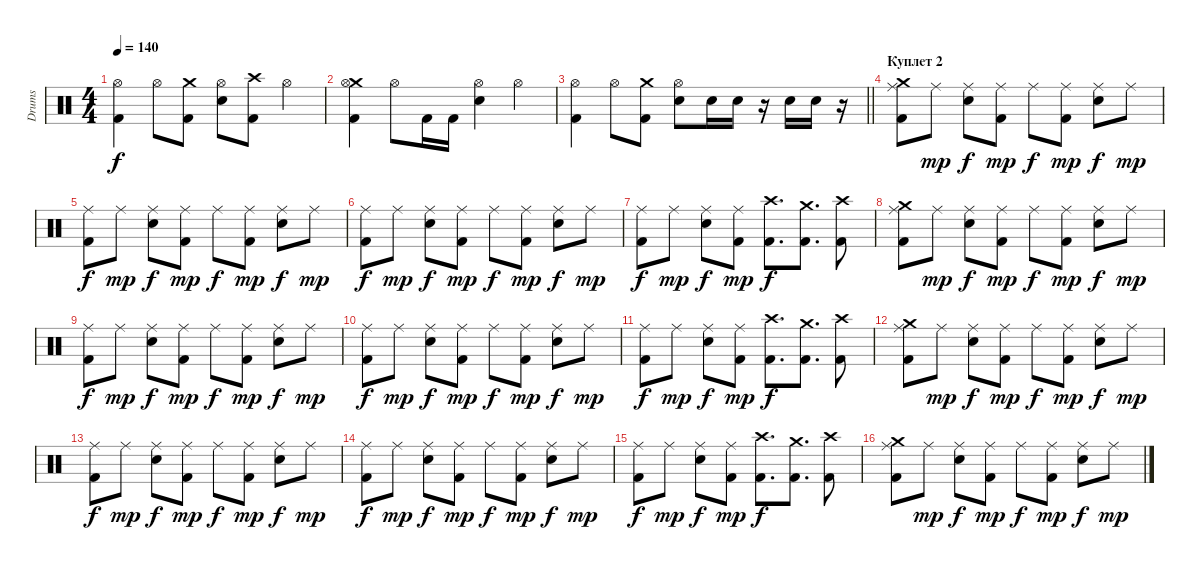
\track ("Drums" "Drums") {instrument percussion}
\staff {score}
\articulation defaults
\ts (4 4)
\tempo 140
\clef neutral
\ks c
("Kick (hit) 2" "Hi-Hat (open)").4{dy f} "Hi-Hat (open)".8 ("Crash medium (hit)" "Kick (hit) 2").8 ("Electric Snare (hit)" "Hi-Hat (open)").8 ("Crash high (hit)" "Kick (hit) 2").8 "Hi-Hat (open)".4 |
("Crash medium (hit)" "Kick (hit) 2" "Hi-Hat (open)").4 "Hi-Hat (open)".8 "Kick (hit) 2".16 "Kick (hit) 2".16 ("Electric Snare (hit)" "Hi-Hat (open)").4 "Hi-Hat (open)".4 |
\barLineRight lightlight
("Kick (hit) 2" "Hi-Hat (open)").4 "Hi-Hat (open)".8 ("Crash medium (hit)" "Kick (hit) 2").8 ("Electric Snare (hit)" "Hi-Hat (open)").8 "Electric Snare (hit)".16 "Electric Snare (hit)".16 r.16 "Electric Snare (hit)".16 "Electric Snare (hit)".16 r.16 |
\section ("" "Куплет 2")
("Crash medium (hit)" "Kick (hit) 2" "Ride (middle)").8 "Ride (middle)".8{dy mp} ("Electric Snare (hit)" "Ride (middle)").8{dy f} ("Kick (hit) 2" "Ride (middle)").8{dy mp} "Ride (middle)".8{dy f} ("Kick (hit) 2" "Ride (middle)").8{dy mp} ("Electric Snare (hit)" "Ride (middle)").8{dy f} "Ride (middle)".8{dy mp} |
("Kick (hit) 2" "Ride (middle)").8{dy f} "Ride (middle)".8{dy mp} ("Electric Snare (hit)" "Ride (middle)").8{dy f} ("Kick (hit) 2" "Ride (middle)").8{dy mp} "Ride (middle)".8{dy f} ("Kick (hit) 2" "Ride (middle)").8{dy mp} ("Electric Snare (hit)" "Ride (middle)").8{dy f} "Ride (middle)".8{dy mp} |
("Kick (hit) 2" "Ride (middle)").8{dy f} "Ride (middle)".8{dy mp} ("Electric Snare (hit)" "Ride (middle)").8{dy f} ("Kick (hit) 2" "Ride (middle)").8{dy mp} "Ride (middle)".8{dy f} ("Kick (hit) 2" "Ride (middle)").8{dy mp} ("Electric Snare (hit)" "Ride (middle)").8{dy f} "Ride (middle)".8{dy mp} |
("Kick (hit) 2" "Ride (middle)").8{dy f} "Ride (middle)".8{dy mp} ("Electric Snare (hit)" "Ride (middle)").8{dy f} ("Kick (hit) 2" "Ride (middle)").8{dy mp} ("Crash high (hit)" "Kick (hit) 2").8{d dy f} ("Crash medium (hit)" "Kick (hit) 2").8{d} ("Crash high (hit)" "Kick (hit) 2").8 |
("Crash medium (hit)" "Kick (hit) 2" "Ride (middle)").8 "Ride (middle)".8{dy mp} ("Electric Snare (hit)" "Ride (middle)").8{dy f} ("Kick (hit) 2" "Ride (middle)").8{dy mp} "Ride (middle)".8{dy f} ("Kick (hit) 2" "Ride (middle)").8{dy mp} ("Electric Snare (hit)" "Ride (middle)").8{dy f} "Ride (middle)".8{dy mp} |
("Kick (hit) 2" "Ride (middle)").8{dy f} "Ride (middle)".8{dy mp} ("Electric Snare (hit)" "Ride (middle)").8{dy f} ("Kick (hit) 2" "Ride (middle)").8{dy mp} "Ride (middle)".8{dy f} ("Kick (hit) 2" "Ride (middle)").8{dy mp} ("Electric Snare (hit)" "Ride (middle)").8{dy f} "Ride (middle)".8{dy mp} |
("Kick (hit) 2" "Ride (middle)").8{dy f} "Ride (middle)".8{dy mp} ("Electric Snare (hit)" "Ride (middle)").8{dy f} ("Kick (hit) 2" "Ride (middle)").8{dy mp} "Ride (middle)".8{dy f} ("Kick (hit) 2" "Ride (middle)").8{dy mp} ("Electric Snare (hit)" "Ride (middle)").8{dy f} "Ride (middle)".8{dy mp} |
("Kick (hit) 2" "Ride (middle)").8{dy f} "Ride (middle)".8{dy mp} ("Electric Snare (hit)" "Ride (middle)").8{dy f} ("Kick (hit) 2" "Ride (middle)").8{dy mp} ("Crash high (hit)" "Kick (hit) 2").8{d dy f} ("Crash medium (hit)" "Kick (hit) 2").8{d} ("Crash high (hit)" "Kick (hit) 2").8 |
("Crash medium (hit)" "Kick (hit) 2" "Ride (middle)").8 "Ride (middle)".8{dy mp} ("Electric Snare (hit)" "Ride (middle)").8{dy f} ("Kick (hit) 2" "Ride (middle)").8{dy mp} "Ride (middle)".8{dy f} ("Kick (hit) 2" "Ride (middle)").8{dy mp} ("Electric Snare (hit)" "Ride (middle)").8{dy f} "Ride (middle)".8{dy mp} |
("Kick (hit) 2" "Ride (middle)").8{dy f} "Ride (middle)".8{dy mp} ("Electric Snare (hit)" "Ride (middle)").8{dy f} ("Kick (hit) 2" "Ride (middle)").8{dy mp} "Ride (middle)".8{dy f} ("Kick (hit) 2" "Ride (middle)").8{dy mp} ("Electric Snare (hit)" "Ride (middle)").8{dy f} "Ride (middle)".8{dy mp} |
("Kick (hit) 2" "Ride (middle)").8{dy f} "Ride (middle)".8{dy mp} ("Electric Snare (hit)" "Ride (middle)").8{dy f} ("Kick (hit) 2" "Ride (middle)").8{dy mp} "Ride (middle)".8{dy f} ("Kick (hit) 2" "Ride (middle)").8{dy mp} ("Electric Snare (hit)" "Ride (middle)").8{dy f} "Ride (middle)".8{dy mp} |
("Kick (hit) 2" "Ride (middle)").8{dy f} "Ride (middle)".8{dy mp} ("Electric Snare (hit)" "Ride (middle)").8{dy f} ("Kick (hit) 2" "Ride (middle)").8{dy mp} ("Crash high (hit)" "Kick (hit) 2").8{d dy f} ("Crash medium (hit)" "Kick (hit) 2").8{d} ("Crash high (hit)" "Kick (hit) 2").8 |
("Crash medium (hit)" "Kick (hit) 2" "Ride (middle)").8 "Ride (middle)".8{dy mp} ("Electric Snare (hit)" "Ride (middle)").8{dy f} ("Kick (hit) 2" "Ride (middle)").8{dy mp} "Ride (middle)".8{dy f} ("Kick (hit) 2" "Ride (middle)").8{dy mp} ("Electric Snare (hit)" "Ride (middle)").8{dy f} "Ride (middle)".8{dy mp}
